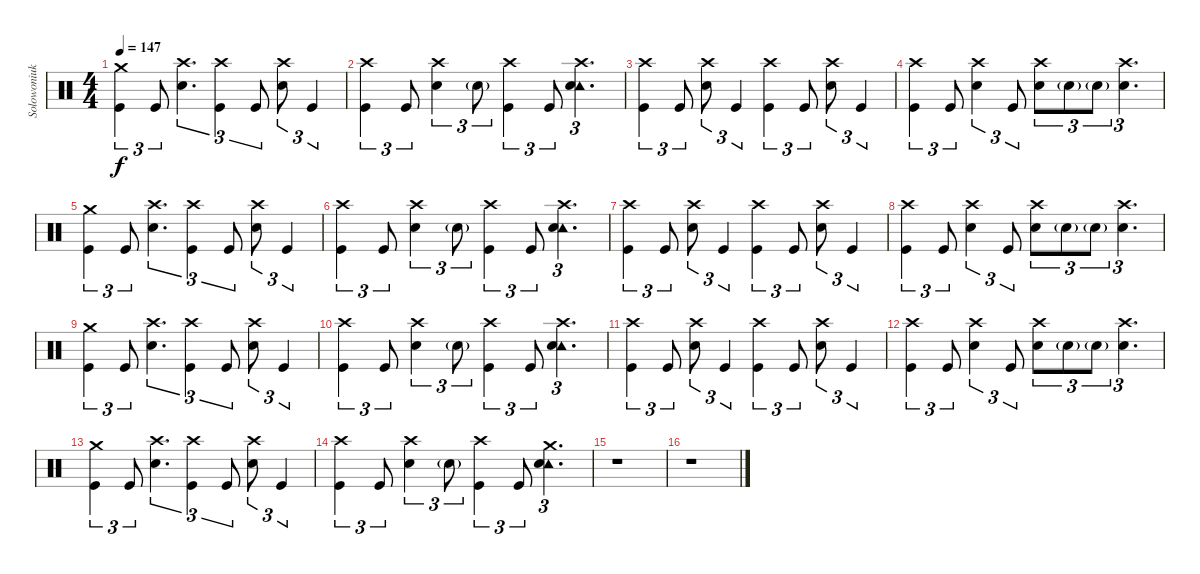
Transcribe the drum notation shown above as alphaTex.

\track ("Solowoniuk " "Solowoniuk") {instrument percussion}
\staff {score}
\articulation defaults
\ts (4 4)
\tempo 147
\clef neutral
\ks c
("Crash medium (hit)" "Kick (hit)").4{tu (3 2) dy f} "Kick (hit)".8{tu (3 2)} ("Crash high (hit)" "Snare (hit) 2").4{d tu (3 2)} ("Crash high (hit)" "Kick (hit)").4{tu (3 2)} "Kick (hit)".8{tu (3 2)} ("Crash high (hit)" "Snare (hit) 2").8{tu (3 2)} "Kick (hit)".4{tu (3 2)} |
("Crash high (hit)" "Kick (hit)").4{tu (3 2)} "Kick (hit)".8{tu (3 2)} ("Crash high (hit)" "Snare (hit) 2").4{tu (3 2)} "Snare (hit) 2"{g}.8{tu (3 2)} ("Crash high (hit)" "Kick (hit)").4{tu (3 2)} "Kick (hit)".8{tu (3 2)} ("Crash high (hit)" "Tambourine (hit)" "Snare (hit) 2").4{d tu (3 2)} |
("Crash high (hit)" "Kick (hit)").4{tu (3 2)} "Kick (hit)".8{tu (3 2)} ("Crash high (hit)" "Snare (hit) 2").8{tu (3 2)} "Kick (hit)".4{tu (3 2)} ("Crash high (hit)" "Kick (hit)").4{tu (3 2)} "Kick (hit)".8{tu (3 2)} ("Crash high (hit)" "Snare (hit) 2").8{tu (3 2)} "Kick (hit)".4{tu (3 2)} |
("Crash high (hit)" "Kick (hit)").4{tu (3 2)} "Kick (hit)".8{tu (3 2)} ("Crash high (hit)" "Snare (hit) 2").4{tu (3 2)} "Kick (hit)".8{tu (3 2)} ("Crash high (hit)" "Snare (hit) 2").8{tu (3 2)} "Snare (hit) 2"{g}.8{tu (3 2)} "Snare (hit) 2"{g}.8{tu (3 2)} ("Crash high (hit)" "Snare (hit) 2").4{d tu (3 2)} |
("Crash medium (hit)" "Kick (hit)").4{tu (3 2)} "Kick (hit)".8{tu (3 2)} ("Crash high (hit)" "Snare (hit) 2").4{d tu (3 2)} ("Crash high (hit)" "Kick (hit)").4{tu (3 2)} "Kick (hit)".8{tu (3 2)} ("Crash high (hit)" "Snare (hit) 2").8{tu (3 2)} "Kick (hit)".4{tu (3 2)} |
("Crash high (hit)" "Kick (hit)").4{tu (3 2)} "Kick (hit)".8{tu (3 2)} ("Crash high (hit)" "Snare (hit) 2").4{tu (3 2)} "Snare (hit) 2"{g}.8{tu (3 2)} ("Crash high (hit)" "Kick (hit)").4{tu (3 2)} "Kick (hit)".8{tu (3 2)} ("Crash high (hit)" "Tambourine (hit)" "Snare (hit) 2").4{d tu (3 2)} |
("Crash high (hit)" "Kick (hit)").4{tu (3 2)} "Kick (hit)".8{tu (3 2)} ("Crash high (hit)" "Snare (hit) 2").8{tu (3 2)} "Kick (hit)".4{tu (3 2)} ("Crash high (hit)" "Kick (hit)").4{tu (3 2)} "Kick (hit)".8{tu (3 2)} ("Crash high (hit)" "Snare (hit) 2").8{tu (3 2)} "Kick (hit)".4{tu (3 2)} |
("Crash high (hit)" "Kick (hit)").4{tu (3 2)} "Kick (hit)".8{tu (3 2)} ("Crash high (hit)" "Snare (hit) 2").4{tu (3 2)} "Kick (hit)".8{tu (3 2)} ("Crash high (hit)" "Snare (hit) 2").8{tu (3 2)} "Snare (hit) 2"{g}.8{tu (3 2)} "Snare (hit) 2"{g}.8{tu (3 2)} ("Crash high (hit)" "Snare (hit) 2").4{d tu (3 2)} |
("Crash medium (hit)" "Kick (hit)").4{tu (3 2)} "Kick (hit)".8{tu (3 2)} ("Crash high (hit)" "Snare (hit) 2").4{d tu (3 2)} ("Crash high (hit)" "Kick (hit)").4{tu (3 2)} "Kick (hit)".8{tu (3 2)} ("Crash high (hit)" "Snare (hit) 2").8{tu (3 2)} "Kick (hit)".4{tu (3 2)} |
("Crash high (hit)" "Kick (hit)").4{tu (3 2)} "Kick (hit)".8{tu (3 2)} ("Crash high (hit)" "Snare (hit) 2").4{tu (3 2)} "Snare (hit) 2"{g}.8{tu (3 2)} ("Crash high (hit)" "Kick (hit)").4{tu (3 2)} "Kick (hit)".8{tu (3 2)} ("Crash high (hit)" "Tambourine (hit)" "Snare (hit) 2").4{d tu (3 2)} |
("Crash high (hit)" "Kick (hit)").4{tu (3 2)} "Kick (hit)".8{tu (3 2)} ("Crash high (hit)" "Snare (hit) 2").8{tu (3 2)} "Kick (hit)".4{tu (3 2)} ("Crash high (hit)" "Kick (hit)").4{tu (3 2)} "Kick (hit)".8{tu (3 2)} ("Crash high (hit)" "Snare (hit) 2").8{tu (3 2)} "Kick (hit)".4{tu (3 2)} |
("Crash high (hit)" "Kick (hit)").4{tu (3 2)} "Kick (hit)".8{tu (3 2)} ("Crash high (hit)" "Snare (hit) 2").4{tu (3 2)} "Kick (hit)".8{tu (3 2)} ("Crash high (hit)" "Snare (hit) 2").8{tu (3 2)} "Snare (hit) 2"{g}.8{tu (3 2)} "Snare (hit) 2"{g}.8{tu (3 2)} ("Crash high (hit)" "Snare (hit) 2").4{d tu (3 2)} |
("Crash medium (hit)" "Kick (hit)").4{tu (3 2)} "Kick (hit)".8{tu (3 2)} ("Crash high (hit)" "Snare (hit) 2").4{d tu (3 2)} ("Crash high (hit)" "Kick (hit)").4{tu (3 2)} "Kick (hit)".8{tu (3 2)} ("Crash high (hit)" "Snare (hit) 2").8{tu (3 2)} "Kick (hit)".4{tu (3 2)} |
("Crash high (hit)" "Kick (hit)").4{tu (3 2)} "Kick (hit)".8{tu (3 2)} ("Crash high (hit)" "Snare (hit) 2").4{tu (3 2)} "Snare (hit) 2"{g}.8{tu (3 2)} ("Crash high (hit)" "Kick (hit)").4{tu (3 2)} "Kick (hit)".8{tu (3 2)} ("Crash medium (hit)" "Tambourine (hit)" "Snare (hit) 2").4{d tu (3 2)} |
r.1 |
r.1
